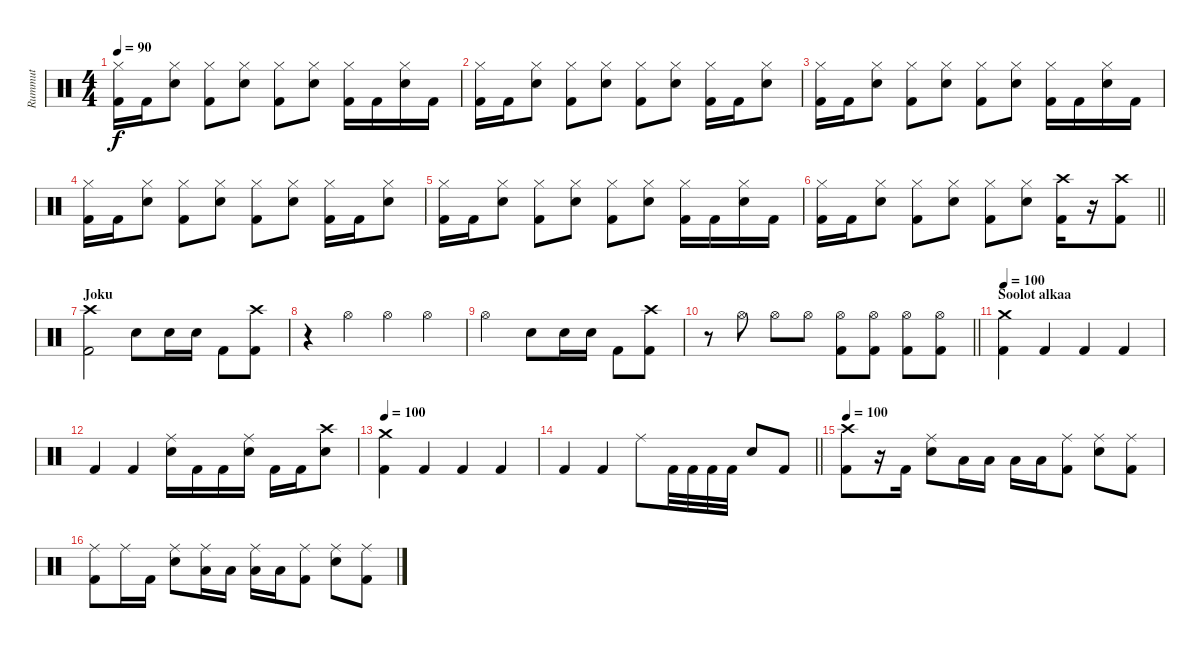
\track ("Rummut" "Rummut") {instrument percussion}
\staff {score}
\articulation defaults
\ts (4 4)
\tempo 90
\clef neutral
\ks c
("Hi-Hat (closed)" "Kick (hit) 2").16{dy f} "Kick (hit) 2".16 ("Hi-Hat (closed)" "Snare (hit) 2").8 ("Hi-Hat (closed)" "Kick (hit) 2").8 ("Hi-Hat (closed)" "Snare (hit) 2").8 ("Hi-Hat (closed)" "Kick (hit) 2").8 ("Hi-Hat (closed)" "Snare (hit) 2").8 ("Hi-Hat (closed)" "Kick (hit) 2").16 "Kick (hit) 2".16 ("Hi-Hat (closed)" "Snare (hit) 2").16 "Kick (hit) 2".16 |
("Hi-Hat (closed)" "Kick (hit) 2").16 "Kick (hit) 2".16 ("Hi-Hat (closed)" "Snare (hit) 2").8 ("Hi-Hat (closed)" "Kick (hit) 2").8 ("Hi-Hat (closed)" "Snare (hit) 2").8 ("Hi-Hat (closed)" "Kick (hit) 2").8 ("Hi-Hat (closed)" "Snare (hit) 2").8 ("Hi-Hat (closed)" "Kick (hit) 2").16 "Kick (hit) 2".16 ("Hi-Hat (closed)" "Snare (hit) 2").8 |
("Hi-Hat (closed)" "Kick (hit) 2").16 "Kick (hit) 2".16 ("Hi-Hat (closed)" "Snare (hit) 2").8 ("Hi-Hat (closed)" "Kick (hit) 2").8 ("Hi-Hat (closed)" "Snare (hit) 2").8 ("Hi-Hat (closed)" "Kick (hit) 2").8 ("Hi-Hat (closed)" "Snare (hit) 2").8 ("Hi-Hat (closed)" "Kick (hit) 2").16 "Kick (hit) 2".16 ("Hi-Hat (closed)" "Snare (hit) 2").16 "Kick (hit) 2".16 |
("Hi-Hat (closed)" "Kick (hit) 2").16 "Kick (hit) 2".16 ("Hi-Hat (closed)" "Snare (hit) 2").8 ("Hi-Hat (closed)" "Kick (hit) 2").8 ("Hi-Hat (closed)" "Snare (hit) 2").8 ("Hi-Hat (closed)" "Kick (hit) 2").8 ("Hi-Hat (closed)" "Snare (hit) 2").8 ("Hi-Hat (closed)" "Kick (hit) 2").16 "Kick (hit) 2".16 ("Hi-Hat (closed)" "Snare (hit) 2").8 |
("Hi-Hat (closed)" "Kick (hit) 2").16 "Kick (hit) 2".16 ("Hi-Hat (closed)" "Snare (hit) 2").8 ("Hi-Hat (closed)" "Kick (hit) 2").8 ("Hi-Hat (closed)" "Snare (hit) 2").8 ("Hi-Hat (closed)" "Kick (hit) 2").8 ("Hi-Hat (closed)" "Snare (hit) 2").8 ("Hi-Hat (closed)" "Kick (hit) 2").16 "Kick (hit) 2".16 ("Hi-Hat (closed)" "Snare (hit) 2").16 "Kick (hit) 2".16 |
\barLineRight lightlight
("Hi-Hat (closed)" "Kick (hit) 2").16 "Kick (hit) 2".16 ("Hi-Hat (closed)" "Snare (hit) 2").8 ("Hi-Hat (closed)" "Kick (hit) 2").8 ("Hi-Hat (closed)" "Snare (hit) 2").8 ("Hi-Hat (closed)" "Kick (hit) 2").8 ("Hi-Hat (closed)" "Snare (hit) 2").8 ("Crash high (hit)" "Kick (hit) 2").16 r.16 ("Crash high (hit)" "Kick (hit) 2").8 |
\section ("" "Joku")
("Crash high (hit)" "Kick (hit) 2").2 "Snare (hit) 2".8 "Snare (hit) 2".16 "Snare (hit) 2".16 "Kick (hit) 2".8 ("Kick (hit) 2" "Crash high (hit)").8 |
r.4 "Hi-Hat (open)".4 "Hi-Hat (open)".4 "Hi-Hat (open)".4 |
"Hi-Hat (open)".2 "Snare (hit) 2".8 "Snare (hit) 2".16 "Snare (hit) 2".16 "Kick (hit) 2".8 ("Kick (hit) 2" "Crash high (hit)").8 |
\barLineRight lightlight
r.8 "Hi-Hat (open)".8 "Hi-Hat (open)".8 "Hi-Hat (open)".8 ("Hi-Hat (open)" "Kick (hit) 2").8 ("Hi-Hat (open)" "Kick (hit) 2").8 ("Hi-Hat (open)" "Kick (hit) 2").8 ("Hi-Hat (open)" "Kick (hit) 2").8 |
\section ("" "Soolot alkaa")
\tempo 100
("Crash medium (hit)" "Kick (hit) 2").4 "Kick (hit) 2".4 "Kick (hit) 2".4 "Kick (hit) 2".4 |
"Kick (hit) 2".4 "Kick (hit) 2".4 ("Ride (middle)" "Snare (hit) 2").16 "Kick (hit) 2".16 "Kick (hit) 2".16 ("Ride (middle)" "Snare (hit) 2").16 "Kick (hit) 2".16 "Kick (hit) 2".16 ("Crash high (hit)" "Snare (hit) 2").8 |
\tempo 100
("Crash medium (hit)" "Kick (hit) 2").4 "Kick (hit) 2".4 "Kick (hit) 2".4 "Kick (hit) 2".4 |
\barLineRight lightlight "Kick (hit) 2".4 "Kick (hit) 2".4 "Ride (middle)".8 "Kick (hit) 2".32 "Kick (hit) 2".32 "Kick (hit) 2".32 "Kick (hit) 2".32 "Snare (hit) 2".8 "Kick (hit) 2".8
|
\tempo 100
("Crash high (hit)" "Kick (hit) 2").8 r.16 "Kick (hit) 2".16 ("Ride (middle)" "Snare (hit) 2").8 "Low Floor Tom (hit)".16 "Low Floor Tom (hit)".16 "Low Floor Tom (hit)".16 "Low Floor Tom (hit)".16 ("Ride (middle)" "Kick (hit) 2").8 ("Ride (middle)" "Snare (hit) 2").8 ("Ride (middle)" "Kick (hit) 2").8 |
("Ride (middle)" "Kick (hit) 2").8 "Ride (middle)".16 "Kick (hit) 2".16 ("Ride (middle)" "Snare (hit) 2").8 ("Ride (middle)" "Low Floor Tom (hit)").16 "Low Floor Tom (hit)".16 ("Ride (middle)" "Low Floor Tom (hit)").16 "Low Floor Tom (hit)".16 ("Ride (middle)" "Kick (hit) 2").8 ("Ride (middle)" "Snare (hit) 2").8 ("Ride (middle)" "Kick (hit) 2").8
